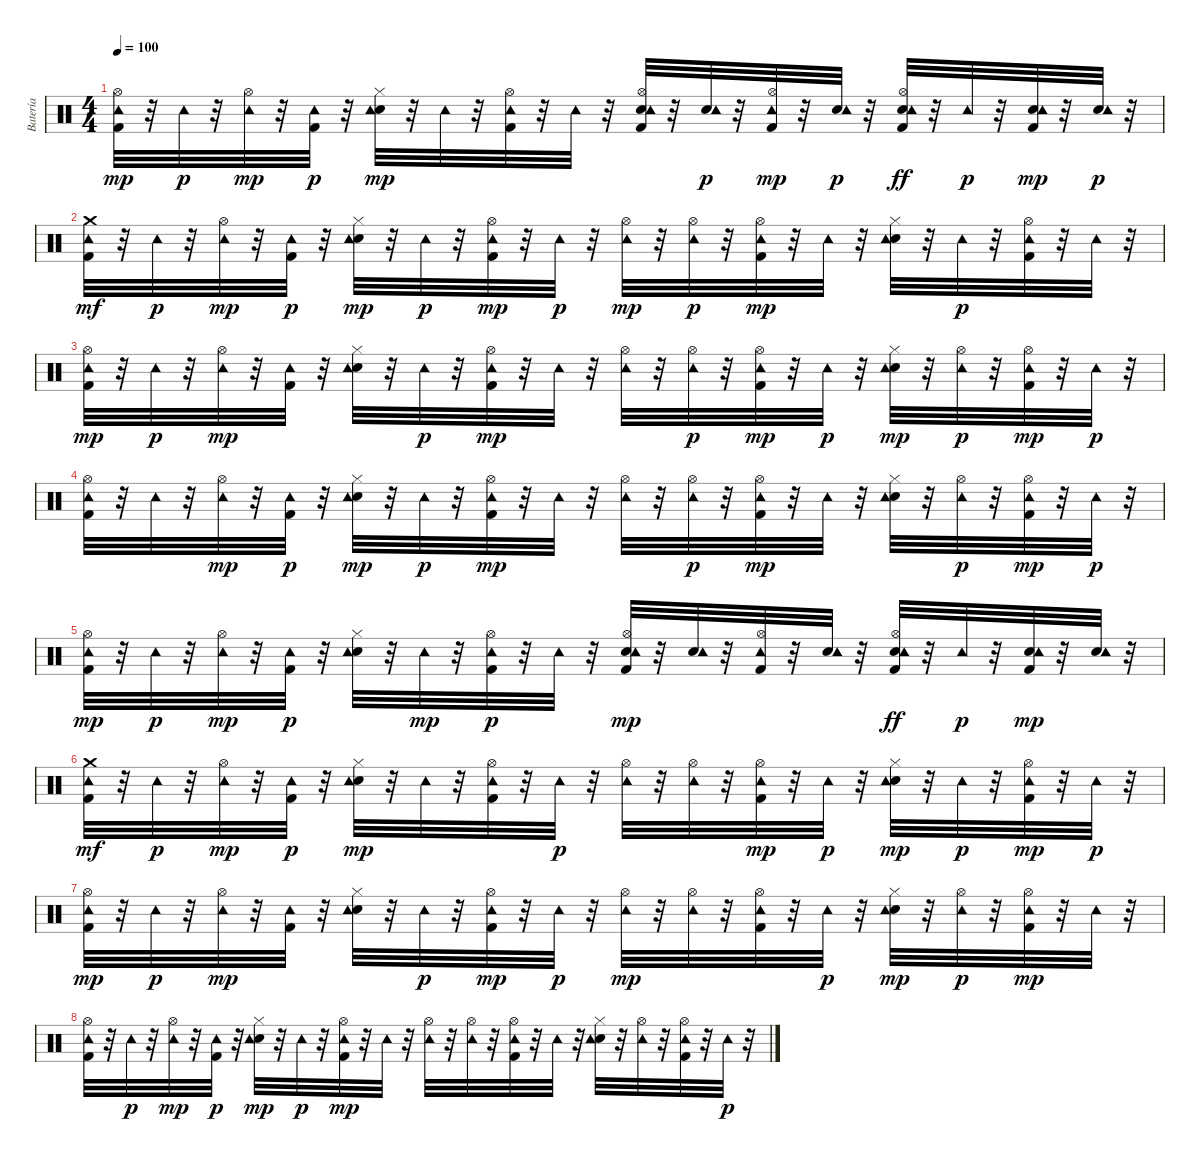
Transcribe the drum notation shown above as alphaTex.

\track ("Batería" "Batería") {instrument percussion}
\staff {score}
\articulation defaults
\ts (4 4)
\tempo 100
\clef neutral
\ks c
("Kick (hit) 2" "Hi-Hat (open)" "Tambourine (hit)").32{dy mp} r.32 "Tambourine (hit)".32{dy p} r.32 ("Hi-Hat (open)" "Tambourine (hit)").32{dy mp} r.32 ("Kick (hit) 2" "Tambourine (hit)").32{dy p} r.32 ("Electric Snare (hit)" "Hi-Hat (closed)" "Tambourine (hit)").32{dy mp} r.32 "Tambourine (hit)".32 r.32 ("Kick (hit) 2" "Hi-Hat (open)" "Tambourine (hit)").32 r.32 "Tambourine (hit)".32 r.32 ("Kick (hit) 2" "Electric Snare (hit)" "Hi-Hat (open)" "Tambourine (hit)").32 r.32 ("Electric Snare (hit)" "Tambourine (hit)").32{dy p} r.32 ("Kick (hit) 2" "Hi-Hat (open)" "Tambourine (hit)").32{dy mp} r.32 ("Electric Snare (hit)" "Tambourine (hit)").32{dy p} r.32 ("Kick (hit) 2" "Electric Snare (hit)" "Hi-Hat (open)" "Tambourine (hit)").32{dy ff} r.32 "Tambourine (hit)".32{dy p} r.32 ("Kick (hit) 2" "Electric Snare (hit)" "Tambourine (hit)").32{dy mp} r.32 ("Electric Snare (hit)" "Tambourine (hit)").32{dy p} r.32 |
("Kick (hit) 2" "Tambourine (hit)" "Crash medium (hit)").32{dy mf} r.32 "Tambourine (hit)".32{dy p} r.32 ("Hi-Hat (open)" "Tambourine (hit)").32{dy mp} r.32 ("Kick (hit) 2" "Tambourine (hit)").32{dy p} r.32 ("Electric Snare (hit)" "Hi-Hat (closed)" "Tambourine (hit)").32{dy mp} r.32 "Tambourine (hit)".32{dy p} r.32 ("Kick (hit) 2" "Hi-Hat (open)" "Tambourine (hit)").32{dy mp} r.32 "Tambourine (hit)".32{dy p} r.32 ("Hi-Hat (open)" "Tambourine (hit)").32{dy mp} r.32 ("Hi-Hat (open)" "Tambourine (hit)").32{dy p} r.32 ("Kick (hit) 2" "Hi-Hat (open)" "Tambourine (hit)").32{dy mp} r.32 "Tambourine (hit)".32 r.32 ("Electric Snare (hit)" "Hi-Hat (closed)" "Tambourine (hit)").32 r.32 "Tambourine (hit)".32{dy p} r.32 ("Kick (hit) 2" "Hi-Hat (open)" "Tambourine (hit)").32 r.32 "Tambourine (hit)".32 r.32 |
("Kick (hit) 2" "Hi-Hat (open)" "Tambourine (hit)").32{dy mp} r.32 "Tambourine (hit)".32{dy p} r.32 ("Hi-Hat (open)" "Tambourine (hit)").32{dy mp} r.32 ("Kick (hit) 2" "Tambourine (hit)").32 r.32 ("Electric Snare (hit)" "Hi-Hat (closed)" "Tambourine (hit)").32 r.32 "Tambourine (hit)".32{dy p} r.32 ("Kick (hit) 2" "Hi-Hat (open)" "Tambourine (hit)").32{dy mp} r.32 "Tambourine (hit)".32 r.32 ("Hi-Hat (open)" "Tambourine (hit)").32 r.32 ("Hi-Hat (open)" "Tambourine (hit)").32{dy p} r.32 ("Kick (hit) 2" "Hi-Hat (open)" "Tambourine (hit)").32{dy mp} r.32 "Tambourine (hit)".32{dy p} r.32 ("Electric Snare (hit)" "Hi-Hat (closed)" "Tambourine (hit)").32{dy mp} r.32 ("Hi-Hat (open)" "Tambourine (hit)").32{dy p} r.32 ("Kick (hit) 2" "Hi-Hat (open)" "Tambourine (hit)").32{dy mp} r.32 "Tambourine (hit)".32{dy p} r.32 |
("Kick (hit) 2" "Hi-Hat (open)" "Tambourine (hit)").32 r.32 "Tambourine (hit)".32 r.32 ("Hi-Hat (open)" "Tambourine (hit)").32{dy mp} r.32 ("Kick (hit) 2" "Tambourine (hit)").32{dy p} r.32 ("Electric Snare (hit)" "Hi-Hat (closed)" "Tambourine (hit)").32{dy mp} r.32 "Tambourine (hit)".32{dy p} r.32 ("Kick (hit) 2" "Hi-Hat (open)" "Tambourine (hit)").32{dy mp} r.32 "Tambourine (hit)".32 r.32 ("Hi-Hat (open)" "Tambourine (hit)").32 r.32 ("Hi-Hat (open)" "Tambourine (hit)").32{dy p} r.32 ("Kick (hit) 2" "Hi-Hat (open)" "Tambourine (hit)").32{dy mp} r.32 "Tambourine (hit)".32 r.32 ("Electric Snare (hit)" "Hi-Hat (closed)" "Tambourine (hit)").32 r.32 ("Hi-Hat (open)" "Tambourine (hit)").32{dy p} r.32 ("Kick (hit) 2" "Hi-Hat (open)" "Tambourine (hit)").32{dy mp} r.32 "Tambourine (hit)".32{dy p} r.32 |
("Kick (hit) 2" "Hi-Hat (open)" "Tambourine (hit)").32{dy mp} r.32 "Tambourine (hit)".32{dy p} r.32 ("Hi-Hat (open)" "Tambourine (hit)").32{dy mp} r.32 ("Kick (hit) 2" "Tambourine (hit)").32{dy p} r.32 ("Electric Snare (hit)" "Hi-Hat (closed)" "Tambourine (hit)").32 r.32 "Tambourine (hit)".32{dy mp} r.32 ("Kick (hit) 2" "Hi-Hat (open)" "Tambourine (hit)").32{dy p} r.32 "Tambourine (hit)".32 r.32 ("Kick (hit) 2" "Electric Snare (hit)" "Hi-Hat (open)" "Tambourine (hit)").32{dy mp} r.32 ("Electric Snare (hit)" "Tambourine (hit)").32 r.32 ("Kick (hit) 2" "Hi-Hat (open)" "Tambourine (hit)").32 r.32 ("Electric Snare (hit)" "Tambourine (hit)").32 r.32 ("Kick (hit) 2" "Electric Snare (hit)" "Hi-Hat (open)" "Tambourine (hit)").32{dy ff} r.32 "Tambourine (hit)".32{dy p} r.32 ("Kick (hit) 2" "Electric Snare (hit)" "Tambourine (hit)").32{dy mp} r.32 ("Electric Snare (hit)" "Tambourine (hit)").32 r.32 |
("Kick (hit) 2" "Tambourine (hit)" "Crash medium (hit)").32{dy mf} r.32 "Tambourine (hit)".32{dy p} r.32 ("Hi-Hat (open)" "Tambourine (hit)").32{dy mp} r.32 ("Kick (hit) 2" "Tambourine (hit)").32{dy p} r.32 ("Electric Snare (hit)" "Hi-Hat (closed)" "Tambourine (hit)").32{dy mp} r.32 "Tambourine (hit)".32 r.32 ("Kick (hit) 2" "Hi-Hat (open)" "Tambourine (hit)").32 r.32 "Tambourine (hit)".32{dy p} r.32 ("Hi-Hat (open)" "Tambourine (hit)").32 r.32 ("Hi-Hat (open)" "Tambourine (hit)").32 r.32 ("Kick (hit) 2" "Hi-Hat (open)" "Tambourine (hit)").32{dy mp} r.32 "Tambourine (hit)".32{dy p} r.32 ("Electric Snare (hit)" "Hi-Hat (closed)" "Tambourine (hit)").32{dy mp} r.32 "Tambourine (hit)".32{dy p} r.32 ("Kick (hit) 2" "Hi-Hat (open)" "Tambourine (hit)").32{dy mp} r.32 "Tambourine (hit)".32{dy p} r.32 |
("Kick (hit) 2" "Hi-Hat (open)" "Tambourine (hit)").32{dy mp} r.32 "Tambourine (hit)".32{dy p} r.32 ("Hi-Hat (open)" "Tambourine (hit)").32{dy mp} r.32 ("Kick (hit) 2" "Tambourine (hit)").32 r.32 ("Electric Snare (hit)" "Hi-Hat (closed)" "Tambourine (hit)").32 r.32 "Tambourine (hit)".32{dy p} r.32 ("Kick (hit) 2" "Hi-Hat (open)" "Tambourine (hit)").32{dy mp} r.32 "Tambourine (hit)".32{dy p} r.32 ("Hi-Hat (open)" "Tambourine (hit)").32{dy mp} r.32 ("Hi-Hat (open)" "Tambourine (hit)").32 r.32 ("Kick (hit) 2" "Hi-Hat (open)" "Tambourine (hit)").32 r.32 "Tambourine (hit)".32{dy p} r.32 ("Electric Snare (hit)" "Hi-Hat (closed)" "Tambourine (hit)").32{dy mp} r.32 ("Hi-Hat (open)" "Tambourine (hit)").32{dy p} r.32 ("Kick (hit) 2" "Hi-Hat (open)" "Tambourine (hit)").32{dy mp} r.32 "Tambourine (hit)".32 r.32 |
("Kick (hit) 2" "Hi-Hat (open)" "Tambourine (hit)").32 r.32 "Tambourine (hit)".32{dy p} r.32 ("Hi-Hat (open)" "Tambourine (hit)").32{dy mp} r.32 ("Kick (hit) 2" "Tambourine (hit)").32{dy p} r.32 ("Electric Snare (hit)" "Hi-Hat (closed)" "Tambourine (hit)").32{dy mp} r.32 "Tambourine (hit)".32{dy p} r.32 ("Kick (hit) 2" "Hi-Hat (open)" "Tambourine (hit)").32{dy mp} r.32 "Tambourine (hit)".32 r.32 ("Hi-Hat (open)" "Tambourine (hit)").32 r.32 ("Hi-Hat (open)" "Tambourine (hit)").32 r.32 ("Kick (hit) 2" "Hi-Hat (open)" "Tambourine (hit)").32 r.32 "Tambourine (hit)".32 r.32 ("Electric Snare (hit)" "Hi-Hat (closed)" "Tambourine (hit)").32 r.32 ("Hi-Hat (open)" "Tambourine (hit)").32 r.32 ("Kick (hit) 2" "Hi-Hat (open)" "Tambourine (hit)").32 r.32 "Tambourine (hit)".32{dy p} r.32
